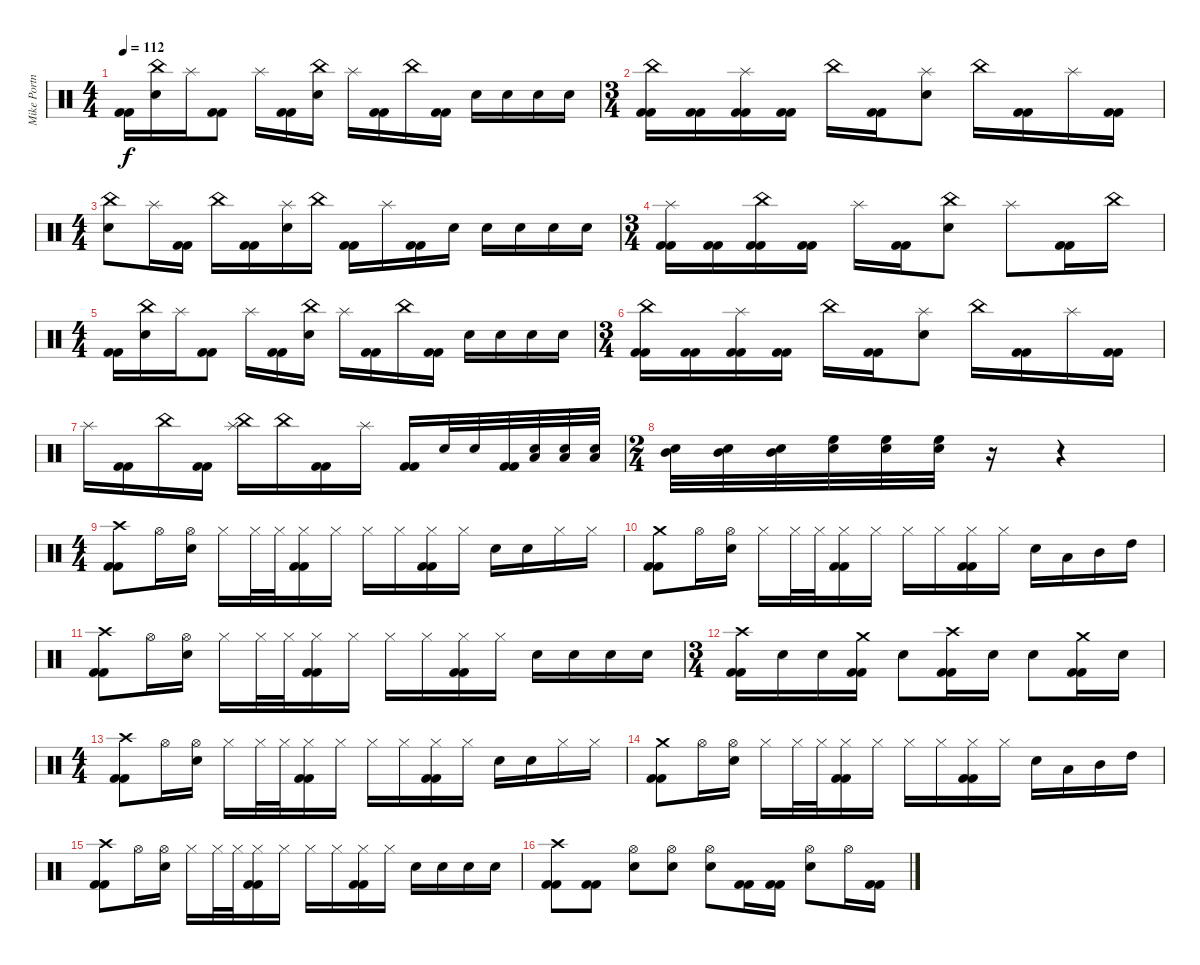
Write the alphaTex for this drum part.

\track ("Mike Portnoy - Drum" "Mike Portn") {instrument percussion}
\staff {score}
\articulation defaults
\ts (4 4)
\tempo 112
\clef neutral
\ks c
("Kick (hit) 2" "Kick (hit) 2").16{dy f} ("China (hit)" "Snare (hit) 2").16 "Splash (hit)".16 ("Kick (hit) 2" "Kick (hit) 2").8 "Splash (hit)".16 ("Kick (hit) 2" "Kick (hit) 2").16 ("China (hit)" "Snare (hit) 2").16 "Splash (hit)".16 ("Kick (hit) 2" "Kick (hit) 2").16 "China (hit)".16 ("Kick (hit) 2" "Kick (hit) 2").16 "Snare (hit) 2".16 "Snare (hit) 2".16 "Snare (hit) 2".16 "Snare (hit) 2".16 |
\ts (3 4)
("China (hit)" "Kick (hit) 2" "Kick (hit) 2").16 ("Kick (hit) 2" "Kick (hit) 2").16 ("Splash (hit)" "Kick (hit) 2" "Kick (hit) 2").16 ("Kick (hit) 2" "Kick (hit) 2").16 "China (hit)".16 ("Kick (hit) 2" "Kick (hit) 2").16 ("Splash (hit)" "Snare (hit) 2").8 "China (hit)".16 ("Kick (hit) 2" "Kick (hit) 2").16 "Splash (hit)".16 ("Kick (hit) 2" "Kick (hit) 2").16 |
\ts (4 4)
("China (hit)" "Snare (hit) 2").8 "Splash (hit)".16 ("Kick (hit) 2" "Kick (hit) 2").16 "China (hit)".16 ("Kick (hit) 2" "Kick (hit) 2").16 ("Splash (hit)" "Snare (hit) 2").16 "China (hit)".16 ("Kick (hit) 2" "Kick (hit) 2").16 "Splash (hit)".16 ("Kick (hit) 2" "Kick (hit) 2").16 "Snare (hit) 2".16 "Snare (hit) 2".16 "Snare (hit) 2".16 "Snare (hit) 2".16 "Snare (hit) 2".16 |
\ts (3 4)
("Splash (hit)" "Kick (hit) 2" "Kick (hit) 2").16 ("Kick (hit) 2" "Kick (hit) 2").16 ("China (hit)" "Kick (hit) 2" "Kick (hit) 2").16 ("Kick (hit) 2" "Kick (hit) 2").16 "Splash (hit)".16 ("Kick (hit) 2" "Kick (hit) 2").16 ("China (hit)" "Snare (hit) 2").8 "Splash (hit)".8 ("Kick (hit) 2" "Kick (hit) 2").16 "China (hit)".16 |
\ts (4 4)
("Kick (hit) 2" "Kick (hit) 2").16 ("China (hit)" "Snare (hit) 2").16 "Splash (hit)".16 ("Kick (hit) 2" "Kick (hit) 2").8 "Splash (hit)".16 ("Kick (hit) 2" "Kick (hit) 2").16 ("China (hit)" "Snare (hit) 2").16 "Splash (hit)".16 ("Kick (hit) 2" "Kick (hit) 2").16 "China (hit)".16 ("Kick (hit) 2" "Kick (hit) 2").16 "Snare (hit) 2".16 "Snare (hit) 2".16 "Snare (hit) 2".16 "Snare (hit) 2".16 |
\ts (3 4)
("China (hit)" "Kick (hit) 2" "Kick (hit) 2").16 ("Kick (hit) 2" "Kick (hit) 2").16 ("Splash (hit)" "Kick (hit) 2" "Kick (hit) 2").16 ("Kick (hit) 2" "Kick (hit) 2").16 "China (hit)".16 ("Kick (hit) 2" "Kick (hit) 2").16 ("Splash (hit)" "Snare (hit) 2").8 "China (hit)".16 ("Kick (hit) 2" "Kick (hit) 2").16 "Splash (hit)".16 ("Kick (hit) 2" "Kick (hit) 2").16 |
"Splash (hit)".16 ("Kick (hit) 2" "Kick (hit) 2").16 "China (hit)".16 ("Kick (hit) 2" "Kick (hit) 2").16 ("Splash (hit)" "China (hit)").16 "China (hit)".16 ("Kick (hit) 2" "Kick (hit) 2").16 "Splash (hit)".16 ("Kick (hit) 2" "Kick (hit) 2").16 "Snare (hit) 2".32 "Snare (hit) 2".32 ("Kick (hit) 2" "Kick (hit) 2").32 ("Low Tom (hit)" "Snare (hit) 2").32 ("Low Tom (hit)" "Snare (hit) 2").32 ("Low Tom (hit)" "Snare (hit) 2").32 |
\ts (2 4)
("Snare (hit) 2" "Mid Tom (hit)").32 ("Snare (hit) 2" "Mid Tom (hit)").32 ("Snare (hit) 2" "Mid Tom (hit)").32 ("Snare (hit) 2" "High Floor Tom (hit)").32 ("Snare (hit) 2" "High Floor Tom (hit)").32 ("Snare (hit) 2" "High Floor Tom (hit)").32 r.16 r.4 |
\ts (4 4)
("Crash high (hit)" "Kick (hit) 2" "Kick (hit) 2").8 "Hi-Hat (open)".16 ("Hi-Hat (open)" "Snare (hit) 2").16 "Hi-Hat (closed)".16 "Hi-Hat (closed)".32 "Hi-Hat (closed)".32 ("Hi-Hat (closed)" "Kick (hit) 2" "Kick (hit) 2").16 "Hi-Hat (closed)".16 "Hi-Hat (closed)".16 "Hi-Hat (closed)".16 ("Hi-Hat (closed)" "Kick (hit) 2" "Kick (hit) 2").16 "Hi-Hat (closed)".16 "Snare (hit) 2".16 "Snare (hit) 2".16 "Hi-Hat (closed)".16 "Hi-Hat (closed)".16 |
("Crash medium (hit)" "Kick (hit) 2" "Kick (hit) 2").8 "Hi-Hat (open)".16 ("Hi-Hat (open)" "Snare (hit) 2").16 "Hi-Hat (closed)".16 "Hi-Hat (closed)".32 "Hi-Hat (closed)".32 ("Hi-Hat (closed)" "Kick (hit) 2" "Kick (hit) 2").16 "Hi-Hat (closed)".16 "Hi-Hat (closed)".16 "Hi-Hat (closed)".16 ("Hi-Hat (closed)" "Kick (hit) 2" "Kick (hit) 2").16 "Hi-Hat (closed)".16 "Snare (hit) 2".16 "Low Tom (hit)".16 "Mid Tom (hit)".16 "High Tom (hit)".16 |
("Crash high (hit)" "Kick (hit) 2" "Kick (hit) 2").8 "Hi-Hat (open)".16 ("Hi-Hat (open)" "Snare (hit) 2").16 "Hi-Hat (closed)".16 "Hi-Hat (closed)".32 "Hi-Hat (closed)".32 ("Hi-Hat (closed)" "Kick (hit) 2" "Kick (hit) 2").16 "Hi-Hat (closed)".16 "Hi-Hat (closed)".16 "Hi-Hat (closed)".16 ("Hi-Hat (closed)" "Kick (hit) 2" "Kick (hit) 2").16 "Hi-Hat (closed)".16 "Snare (hit) 2".16 "Snare (hit) 2".16 "Snare (hit) 2".16 "Snare (hit) 2".16 |
\ts (3 4)
("Crash high (hit)" "Kick (hit) 2" "Kick (hit) 2").16 "Snare (hit) 2".16 "Snare (hit) 2".16 ("Crash medium (hit)" "Kick (hit) 2" "Kick (hit) 2").16 "Snare (hit) 2".8 ("Crash high (hit)" "Kick (hit) 2" "Kick (hit) 2").16 "Snare (hit) 2".16 "Snare (hit) 2".8 ("Crash medium (hit)" "Kick (hit) 2" "Kick (hit) 2").16 "Snare (hit) 2".16 |
\ts (4 4)
("Crash high (hit)" "Kick (hit) 2" "Kick (hit) 2").8 "Hi-Hat (open)".16 ("Hi-Hat (open)" "Snare (hit) 2").16 "Hi-Hat (closed)".16 "Hi-Hat (closed)".32 "Hi-Hat (closed)".32 ("Hi-Hat (closed)" "Kick (hit) 2" "Kick (hit) 2").16 "Hi-Hat (closed)".16 "Hi-Hat (closed)".16 "Hi-Hat (closed)".16 ("Hi-Hat (closed)" "Kick (hit) 2" "Kick (hit) 2").16 "Hi-Hat (closed)".16 "Snare (hit) 2".16 "Snare (hit) 2".16 "Hi-Hat (closed)".16 "Hi-Hat (closed)".16 |
("Crash medium (hit)" "Kick (hit) 2" "Kick (hit) 2").8 "Hi-Hat (open)".16 ("Hi-Hat (open)" "Snare (hit) 2").16 "Hi-Hat (closed)".16 "Hi-Hat (closed)".32 "Hi-Hat (closed)".32 ("Hi-Hat (closed)" "Kick (hit) 2" "Kick (hit) 2").16 "Hi-Hat (closed)".16 "Hi-Hat (closed)".16 "Hi-Hat (closed)".16 ("Hi-Hat (closed)" "Kick (hit) 2" "Kick (hit) 2").16 "Hi-Hat (closed)".16 "Snare (hit) 2".16 "Low Tom (hit)".16 "Mid Tom (hit)".16 "High Tom (hit)".16 |
("Crash high (hit)" "Kick (hit) 2" "Kick (hit) 2").8 "Hi-Hat (open)".16 ("Hi-Hat (open)" "Snare (hit) 2").16 "Hi-Hat (closed)".16 "Hi-Hat (closed)".32 "Hi-Hat (closed)".32 ("Hi-Hat (closed)" "Kick (hit) 2" "Kick (hit) 2").16 "Hi-Hat (closed)".16 "Hi-Hat (closed)".16 "Hi-Hat (closed)".16 ("Hi-Hat (closed)" "Kick (hit) 2" "Kick (hit) 2").16 "Hi-Hat (closed)".16 "Snare (hit) 2".16 "Snare (hit) 2".16 "Snare (hit) 2".16 "Snare (hit) 2".16 |
("Crash high (hit)" "Kick (hit) 2" "Kick (hit) 2").8 ("Kick (hit) 2" "Kick (hit) 2").8 ("Hi-Hat (open)" "Snare (hit) 2").8 ("Hi-Hat (open)" "Snare (hit) 2").8 ("Hi-Hat (open)" "Snare (hit) 2").8 ("Kick (hit) 2" "Kick (hit) 2").16 ("Kick (hit) 2" "Kick (hit) 2").16 ("Hi-Hat (open)" "Snare (hit) 2").8 "Hi-Hat (open)".16 ("Kick (hit) 2" "Kick (hit) 2").16
